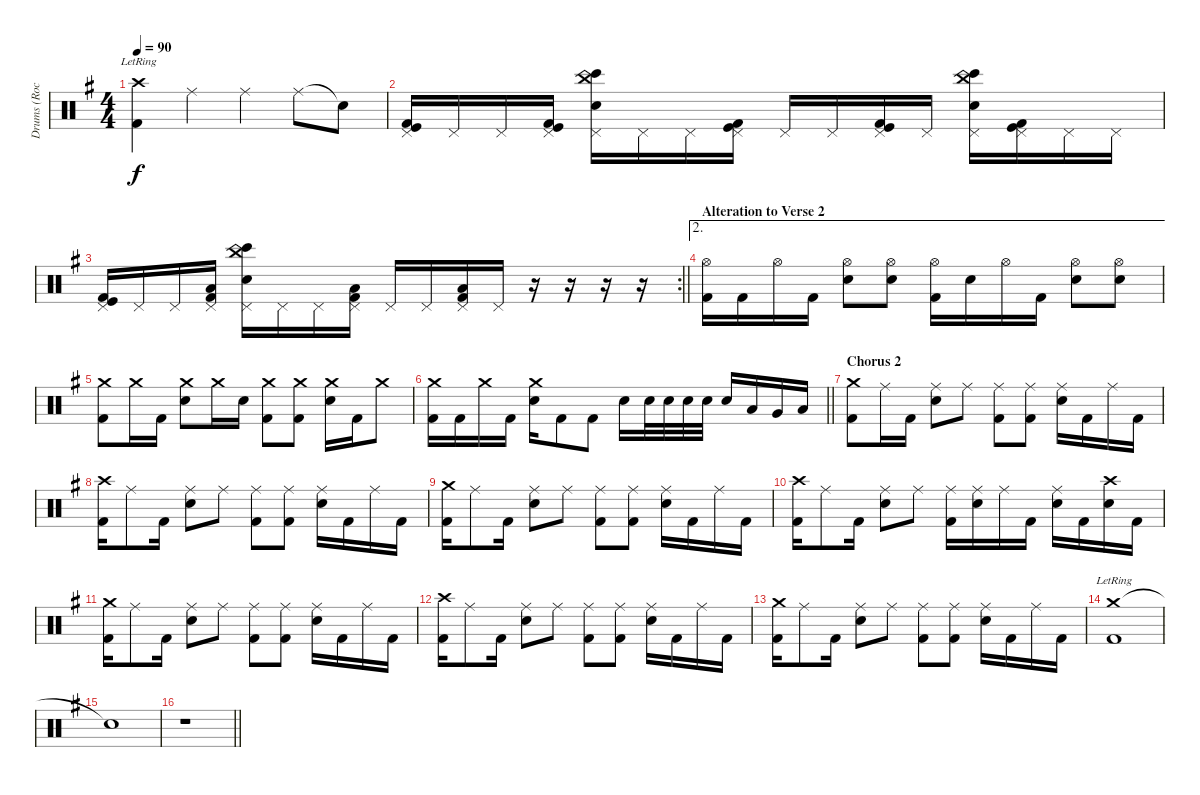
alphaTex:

\track ("Drums (Rocky Grey)" "Drums (Roc") {instrument percussion}
\staff {score}
\articulation defaults
\ts (4 4)
\tempo 90
\clef neutral
\ks g
("Crash high (hit)"{lr} "Kick (hit) 2").4{dy f} "Ride (middle)".4 "Ride (middle)".4 "Ride (middle)".8 "Snare (hit)"{t}.8 |
("Pedal Hi-Hat (hit)" "Kick (hit)" "Kick (hit) 2").16{volume 10} "Pedal Hi-Hat (hit)".16 "Pedal Hi-Hat (hit)".16 ("Pedal Hi-Hat (hit)" "Kick (hit) 2" "Kick (hit)").16 ("Pedal Hi-Hat (hit)" "China (hit)" "Snare (hit) 2" "Bongo High (hit)").16 "Pedal Hi-Hat (hit)".16 "Pedal Hi-Hat (hit)".16 ("Pedal Hi-Hat (hit)" "Kick (hit) 2" "Kick (hit)").16 "Pedal Hi-Hat (hit)".16 "Pedal Hi-Hat (hit)".16 ("Pedal Hi-Hat (hit)" "Kick (hit) 2" "Kick (hit)").16 "Pedal Hi-Hat (hit)".16 ("Pedal Hi-Hat (hit)" "China (hit)" "Snare (hit) 2" "Bongo High (hit)").16 ("Pedal Hi-Hat (hit)" "Kick (hit) 2" "Kick (hit)").16 "Pedal Hi-Hat (hit)".16 "Pedal Hi-Hat (hit)".16 |
\rc 2
\barLineRight lightlight
("Pedal Hi-Hat (hit)" "Kick (hit)" "Kick (hit) 2").16 "Pedal Hi-Hat (hit)".16 "Pedal Hi-Hat (hit)".16 ("Pedal Hi-Hat (hit)" "Kick (hit) 2" "Low Floor Tom (hit)").16 ("Pedal Hi-Hat (hit)" "China (hit)" "Snare (hit) 2" "Bongo High (hit)").16 "Pedal Hi-Hat (hit)".16 "Pedal Hi-Hat (hit)".16 ("Pedal Hi-Hat (hit)" "Kick (hit) 2" "Low Floor Tom (hit)").16 "Pedal Hi-Hat (hit)".16 "Pedal Hi-Hat (hit)".16 ("Pedal Hi-Hat (hit)" "Kick (hit) 2" "Low Floor Tom (hit)").16 "Pedal Hi-Hat (hit)".16 r.16 r.16 r.16 r.16 |
\ae 2
\section ("" "Alteration to Verse 2")
("Hi-Hat (open)" "Kick (hit) 2").16 "Kick (hit) 2".16 "Hi-Hat (open)".16 "Kick (hit) 2".16 ("Hi-Hat (open)" "Snare (hit) 2").8 ("Hi-Hat (open)" "Snare (hit) 2").8 ("Hi-Hat (open)" "Kick (hit) 2").16 "Snare (hit) 2".16 "Hi-Hat (open)".16 "Kick (hit) 2".16 ("Hi-Hat (open)" "Snare (hit) 2").8 ("Hi-Hat (open)" "Snare (hit) 2").8 |
("Crash medium (hit)" "Kick (hit) 2").8 "Crash medium (hit)".16 "Kick (hit) 2".16 ("Crash medium (hit)" "Snare (hit) 2").8 "Crash medium (hit)".16 "Snare (hit) 2".16 ("Crash medium (hit)" "Kick (hit) 2").8 ("Crash medium (hit)" "Kick (hit) 2").8 ("Crash medium (hit)" "Snare (hit) 2").16 "Kick (hit) 2".16 "Crash medium (hit)".8 |
\barLineRight lightlight
("Crash medium (hit)" "Kick (hit) 2").16 "Kick (hit) 2".16 "Crash medium (hit)".16 "Kick (hit) 2".16 ("Crash medium (hit)" "Snare (hit) 2").16 "Kick (hit) 2".8 "Kick (hit) 2".8 "Snare (hit) 2".16 "Snare (hit) 2".32 "Snare (hit) 2".32 "Snare (hit) 2".32 "Snare (hit) 2".32 "Snare (hit) 2".16 "Low Tom (hit)".16 "Very Low Tom (hit)".16 "Low Floor Tom (hit)".16 |
\section ("" "Chorus 2")
("Crash medium (hit)" "Kick (hit) 2").8 "Ride (middle)".16 "Kick (hit) 2".16 ("Ride (middle)" "Snare (hit) 2").8 "Ride (middle)".8 ("Ride (middle)" "Kick (hit) 2").8 ("Ride (middle)" "Kick (hit) 2").8 ("Ride (middle)" "Snare (hit) 2").16 "Kick (hit) 2".16 "Ride (middle)".16 "Kick (hit) 2".16 |
("Crash high (hit)" "Kick (hit) 2").16 "Ride (middle)".8 "Kick (hit) 2".16 ("Ride (middle)" "Snare (hit) 2").8 "Ride (middle)".8 ("Ride (middle)" "Kick (hit) 2").8 ("Ride (middle)" "Kick (hit) 2").8 ("Ride (middle)" "Snare (hit) 2").16 "Kick (hit) 2".16 "Ride (middle)".16 "Kick (hit) 2".16 |
("Crash medium (hit)" "Kick (hit) 2").16 "Ride (middle)".8 "Kick (hit) 2".16 ("Ride (middle)" "Snare (hit) 2").8 "Ride (middle)".8 ("Ride (middle)" "Kick (hit) 2").8 ("Ride (middle)" "Kick (hit) 2").8 ("Ride (middle)" "Snare (hit) 2").16 "Kick (hit) 2".16 "Ride (middle)".16 "Kick (hit) 2".16 |
("Crash high (hit)" "Kick (hit) 2").16 "Ride (middle)".8 "Kick (hit) 2".16 ("Ride (middle)" "Snare (hit) 2").8 "Ride (middle)".8 ("Ride (middle)" "Kick (hit) 2").16 ("Ride (middle)" "Snare (hit) 2").16 "Ride (middle)".16 "Kick (hit) 2".16 ("Ride (middle)" "Snare (hit) 2").16 "Kick (hit) 2".16 ("Crash high (hit)" "Snare (hit) 2").16 "Kick (hit) 2".16 |
("Crash medium (hit)" "Kick (hit) 2").16 "Ride (middle)".8 "Kick (hit) 2".16 ("Ride (middle)" "Snare (hit) 2").8 "Ride (middle)".8 ("Ride (middle)" "Kick (hit) 2").8 ("Ride (middle)" "Kick (hit) 2").8 ("Ride (middle)" "Snare (hit) 2").16 "Kick (hit) 2".16 "Ride (middle)".16 "Kick (hit) 2".16 |
("Crash high (hit)" "Kick (hit) 2").16 "Ride (middle)".8 "Kick (hit) 2".16 ("Ride (middle)" "Snare (hit) 2").8 "Ride (middle)".8 ("Ride (middle)" "Kick (hit) 2").8 ("Ride (middle)" "Kick (hit) 2").8 ("Ride (middle)" "Snare (hit) 2").16 "Kick (hit) 2".16 "Ride (middle)".16 "Kick (hit) 2".16 |
("Crash medium (hit)" "Kick (hit) 2").16 "Ride (middle)".8 "Kick (hit) 2".16 ("Ride (middle)" "Snare (hit) 2").8 "Ride (middle)".8 ("Ride (middle)" "Kick (hit) 2").8 ("Ride (middle)" "Kick (hit) 2").8 ("Ride (middle)" "Snare (hit) 2").16 "Kick (hit) 2".16 "Ride (middle)".16 "Kick (hit) 2".16 |
("Crash medium (hit)"{lr} "Kick (hit) 2").1 |
"Snare (hit)"{t}.1 |
\barLineRight lightlight
r.1
